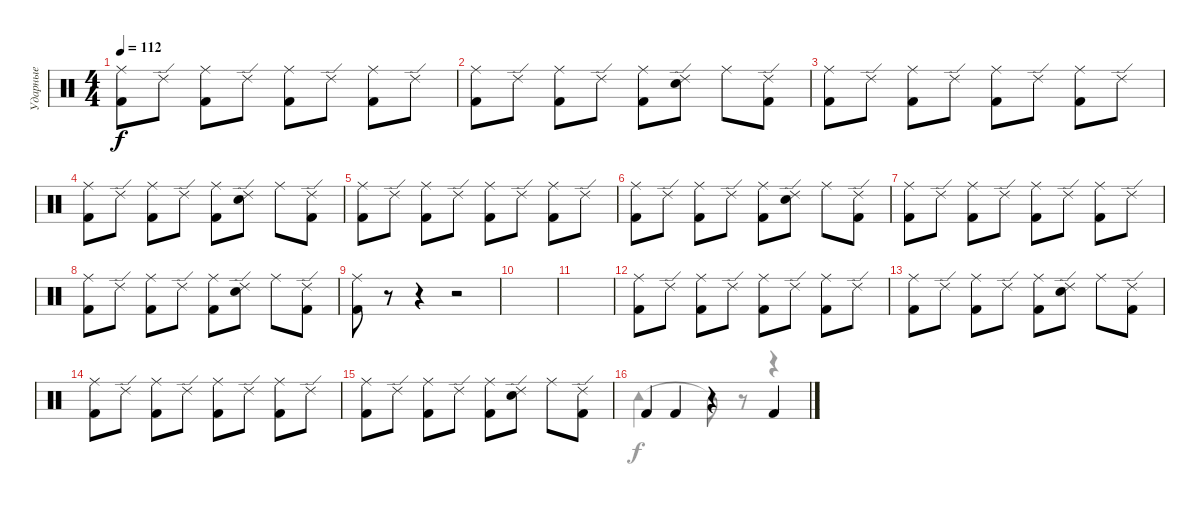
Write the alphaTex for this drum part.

\track ("Ударные" "Ударные") {instrument percussion}
\staff {score}
\articulation defaults
\voice
\ts (4 4)
\tempo 112
\clef neutral
\ks c
("Ride (middle)" "Kick (hit) 2").8{dy f} "Ride (edge) 2".8 ("Ride (middle)" "Kick (hit) 2").8 "Ride (edge) 2".8 ("Ride (middle)" "Kick (hit) 2").8 "Ride (edge) 2".8 ("Ride (middle)" "Kick (hit) 2").8 "Ride (edge) 2".8 |
("Ride (middle)" "Kick (hit) 2").8 "Ride (edge) 2".8 ("Ride (middle)" "Kick (hit) 2").8 "Ride (edge) 2".8 ("Ride (middle)" "Kick (hit) 2").8 ("Ride (edge) 2" "Snare (hit) 2").8 "Ride (middle)".8 ("Ride (edge) 2" "Kick (hit) 2").8 |
("Ride (middle)" "Kick (hit) 2").8 "Ride (edge) 2".8 ("Ride (middle)" "Kick (hit) 2").8 "Ride (edge) 2".8 ("Ride (middle)" "Kick (hit) 2").8 "Ride (edge) 2".8 ("Ride (middle)" "Kick (hit) 2").8 "Ride (edge) 2".8 |
("Ride (middle)" "Kick (hit) 2").8 "Ride (edge) 2".8 ("Ride (middle)" "Kick (hit) 2").8 "Ride (edge) 2".8 ("Ride (middle)" "Kick (hit) 2").8 ("Ride (edge) 2" "Snare (hit) 2").8 "Ride (middle)".8 ("Ride (edge) 2" "Kick (hit) 2").8 |
("Ride (middle)" "Kick (hit) 2").8 "Ride (edge) 2".8 ("Ride (middle)" "Kick (hit) 2").8 "Ride (edge) 2".8 ("Ride (middle)" "Kick (hit) 2").8 "Ride (edge) 2".8 ("Ride (middle)" "Kick (hit) 2").8 "Ride (edge) 2".8 |
("Ride (middle)" "Kick (hit) 2").8 "Ride (edge) 2".8 ("Ride (middle)" "Kick (hit) 2").8 "Ride (edge) 2".8 ("Ride (middle)" "Kick (hit) 2").8 ("Ride (edge) 2" "Snare (hit) 2").8 "Ride (middle)".8 ("Ride (edge) 2" "Kick (hit) 2").8 |
("Ride (middle)" "Kick (hit) 2").8 "Ride (edge) 2".8 ("Ride (middle)" "Kick (hit) 2").8 "Ride (edge) 2".8 ("Ride (middle)" "Kick (hit) 2").8 "Ride (edge) 2".8 ("Ride (middle)" "Kick (hit) 2").8 "Ride (edge) 2".8 |
("Ride (middle)" "Kick (hit) 2").8 "Ride (edge) 2".8 ("Ride (middle)" "Kick (hit) 2").8 "Ride (edge) 2".8 ("Ride (middle)" "Kick (hit) 2").8 ("Ride (edge) 2" "Snare (hit) 2").8 "Ride (middle)".8 ("Ride (edge) 2" "Kick (hit) 2").8 |
("Ride (middle)" "Kick (hit) 2").8 r.8 r.4 r.2 |
|
|
("Ride (middle)" "Kick (hit) 2").8 "Ride (edge) 2".8 ("Ride (middle)" "Kick (hit) 2").8 "Ride (edge) 2".8 ("Ride (middle)" "Kick (hit) 2").8 "Ride (edge) 2".8 ("Ride (middle)" "Kick (hit) 2").8 "Ride (edge) 2".8 |
("Ride (middle)" "Kick (hit) 2").8 "Ride (edge) 2".8 ("Ride (middle)" "Kick (hit) 2").8 "Ride (edge) 2".8 ("Ride (middle)" "Kick (hit) 2").8 ("Ride (edge) 2" "Snare (hit) 2").8 "Ride (middle)".8 ("Ride (edge) 2" "Kick (hit) 2").8 |
("Ride (middle)" "Kick (hit) 2").8 "Ride (edge) 2".8 ("Ride (middle)" "Kick (hit) 2").8 "Ride (edge) 2".8 ("Ride (middle)" "Kick (hit) 2").8 "Ride (edge) 2".8 ("Ride (middle)" "Kick (hit) 2").8 "Ride (edge) 2".8 |
("Ride (middle)" "Kick (hit) 2").8 "Ride (edge) 2".8 ("Ride (middle)" "Kick (hit) 2").8 "Ride (edge) 2".8 ("Ride (middle)" "Kick (hit) 2").8 ("Ride (edge) 2" "Snare (hit) 2").8 "Ride (middle)".8 ("Ride (edge) 2" "Kick (hit) 2").8 |
"Kick (hit) 2".4 "Kick (hit) 2".4 r.4 "Kick (hit) 2".4
\voice
\clef neutral
\ottava regular
\simile none
\ks c
|
|
|
|
|
|
|
|
|
|
|
|
|
|
|
"Tambourine (hit)".2 "Tambourine (hit)"{t}.8 r.8 r.4
